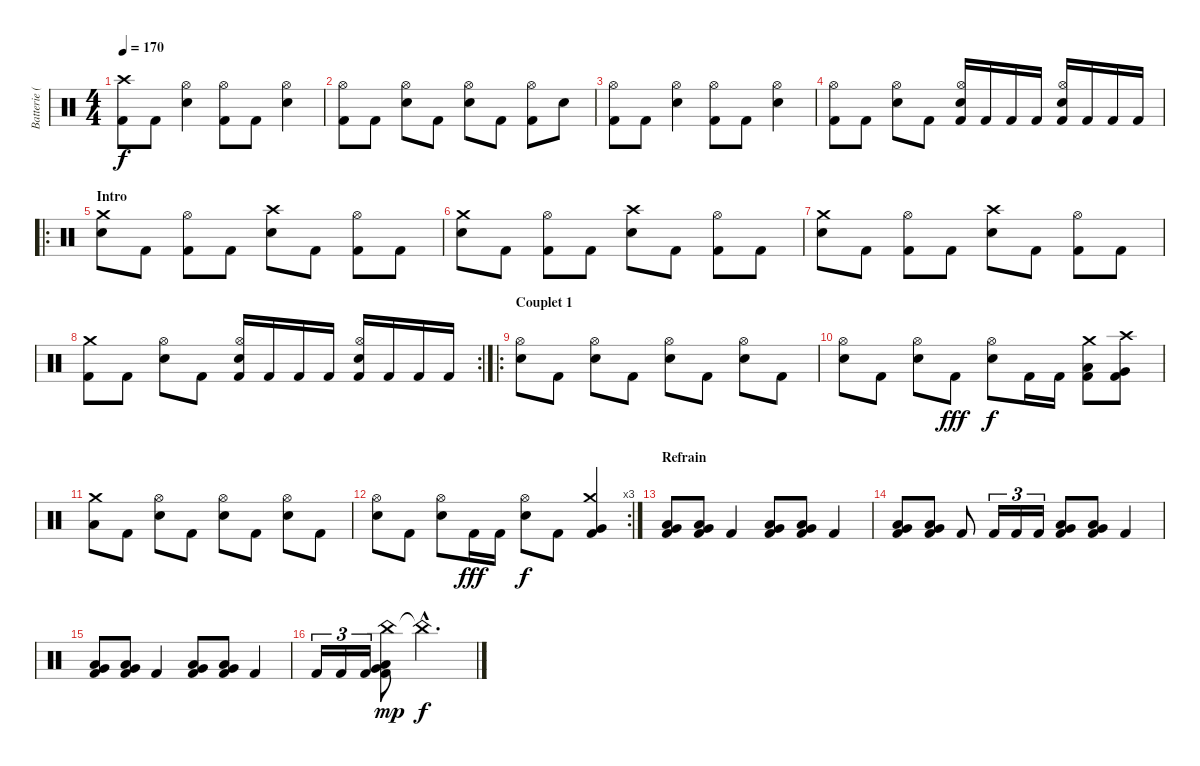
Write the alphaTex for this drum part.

\track ("Batterie (Racci \"Sketchy\" Shay)" "Batterie (") {instrument percussion}
\staff {score}
\articulation defaults
\ts (4 4)
\tempo 170
\clef neutral
\ks c
("Crash high (hit)" "Kick (hit) 2").8{dy f} "Kick (hit) 2".8 ("Hi-Hat (open)" "Electric Snare (hit)").4 ("Hi-Hat (open)" "Kick (hit) 2").8 "Kick (hit) 2".8 ("Hi-Hat (open)" "Electric Snare (hit)").4 |
("Hi-Hat (open)" "Kick (hit) 2").8 "Kick (hit) 2".8 ("Hi-Hat (open)" "Electric Snare (hit)").8 "Kick (hit) 2".8 ("Hi-Hat (open)" "Electric Snare (hit)").8 "Kick (hit) 2".8 ("Hi-Hat (open)" "Kick (hit) 2").8 "Electric Snare (hit)".8 |
("Hi-Hat (open)" "Kick (hit) 2").8 "Kick (hit) 2".8 ("Hi-Hat (open)" "Electric Snare (hit)").4 ("Hi-Hat (open)" "Kick (hit) 2").8 "Kick (hit) 2".8 ("Hi-Hat (open)" "Electric Snare (hit)").4 |
("Hi-Hat (open)" "Kick (hit) 2").8 "Kick (hit) 2".8 ("Hi-Hat (open)" "Electric Snare (hit)").8 "Kick (hit) 2".8 ("Hi-Hat (open)" "Electric Snare (hit)" "Kick (hit) 2").16 "Kick (hit) 2".16 "Kick (hit) 2".16 "Kick (hit) 2".16 ("Hi-Hat (open)" "Electric Snare (hit)" "Kick (hit) 2").16 "Kick (hit) 2".16 "Kick (hit) 2".16 "Kick (hit) 2".16 |
\ro
\section ("" "Intro")
("Crash medium (hit)" "Electric Snare (hit)").8 "Kick (hit) 2".8 ("Hi-Hat (open)" "Kick (hit) 2").8 "Kick (hit) 2".8 ("Crash high (hit)" "Electric Snare (hit)").8 "Kick (hit) 2".8 ("Hi-Hat (open)" "Kick (hit) 2").8 "Kick (hit) 2".8 |
("Crash medium (hit)" "Electric Snare (hit)").8 "Kick (hit) 2".8 ("Hi-Hat (open)" "Kick (hit) 2").8 "Kick (hit) 2".8 ("Crash high (hit)" "Electric Snare (hit)").8 "Kick (hit) 2".8 ("Hi-Hat (open)" "Kick (hit) 2").8 "Kick (hit) 2".8 |
("Crash medium (hit)" "Electric Snare (hit)").8 "Kick (hit) 2".8 ("Hi-Hat (open)" "Kick (hit) 2").8 "Kick (hit) 2".8 ("Crash high (hit)" "Electric Snare (hit)").8 "Kick (hit) 2".8 ("Hi-Hat (open)" "Kick (hit) 2").8 "Kick (hit) 2".8 |
\rc 2
("Crash medium (hit)" "Kick (hit) 2").8 "Kick (hit) 2".8 ("Hi-Hat (open)" "Electric Snare (hit)").8 "Kick (hit) 2".8 ("Hi-Hat (open)" "Electric Snare (hit)" "Kick (hit) 2").16 "Kick (hit) 2".16 "Kick (hit) 2".16 "Kick (hit) 2".16 ("Hi-Hat (open)" "Electric Snare (hit)" "Kick (hit) 2").16 "Kick (hit) 2".16 "Kick (hit) 2".16 "Kick (hit) 2".16 |
\ro
\section ("" "Couplet 1")
("Hi-Hat (open)" "Electric Snare (hit)").8 "Kick (hit) 2".8 ("Hi-Hat (open)" "Electric Snare (hit)").8 "Kick (hit) 2".8 ("Hi-Hat (open)" "Electric Snare (hit)").8 "Kick (hit) 2".8 ("Hi-Hat (open)" "Electric Snare (hit)").8 "Kick (hit) 2".8 |
("Hi-Hat (open)" "Electric Snare (hit)").8 "Kick (hit) 2".8 ("Hi-Hat (open)" "Electric Snare (hit)").8 "Kick (hit) 2".8{dy fff} ("Hi-Hat (open)" "Electric Snare (hit)").8{dy f} "Kick (hit) 2".16 "Kick (hit) 2".16 ("Crash medium (hit)" "Low Floor Tom (hit)" "Kick (hit) 2").8 ("Crash high (hit)" "Very Low Tom (hit)" "Kick (hit) 2").8 |
("Crash medium (hit)" "Low Floor Tom (hit)").8 "Kick (hit) 2".8 ("Hi-Hat (open)" "Electric Snare (hit)").8 "Kick (hit) 2".8 ("Hi-Hat (open)" "Electric Snare (hit)").8 "Kick (hit) 2".8 ("Hi-Hat (open)" "Electric Snare (hit)").8 "Kick (hit) 2".8 |
\rc 3
("Hi-Hat (open)" "Electric Snare (hit)").8 "Kick (hit) 2".8 ("Hi-Hat (open)" "Electric Snare (hit)").8 "Kick (hit) 2".16{dy fff} "Kick (hit) 2".16 ("Hi-Hat (open)" "Electric Snare (hit)").8{dy f} "Kick (hit) 2".8 ("Crash medium (hit)" "Very Low Tom (hit)" "Kick (hit) 2").4 |
\section ("" "Refrain")
("Very Low Tom (hit)" "Low Floor Tom (hit)" "Kick (hit) 2").8 ("Very Low Tom (hit)" "Low Floor Tom (hit)" "Kick (hit) 2").8 "Kick (hit) 2".4 ("Very Low Tom (hit)" "Low Floor Tom (hit)" "Kick (hit) 2").8 ("Very Low Tom (hit)" "Low Floor Tom (hit)" "Kick (hit) 2").8 "Kick (hit) 2".4 |
("Very Low Tom (hit)" "Low Floor Tom (hit)" "Kick (hit) 2").8 ("Very Low Tom (hit)" "Low Floor Tom (hit)" "Kick (hit) 2").8 "Kick (hit) 2".8 "Kick (hit) 2".16{tu (3 2)} "Kick (hit) 2".16{tu (3 2)} "Kick (hit) 2".16{tu (3 2)} ("Very Low Tom (hit)" "Low Floor Tom (hit)" "Kick (hit) 2").8 ("Very Low Tom (hit)" "Low Floor Tom (hit)" "Kick (hit) 2").8 "Kick (hit) 2".4 |
("Very Low Tom (hit)" "Low Floor Tom (hit)" "Kick (hit) 2").8 ("Very Low Tom (hit)" "Low Floor Tom (hit)" "Kick (hit) 2").8 "Kick (hit) 2".4 ("Very Low Tom (hit)" "Low Floor Tom (hit)" "Kick (hit) 2").8 ("Very Low Tom (hit)" "Low Floor Tom (hit)" "Kick (hit) 2").8 "Kick (hit) 2".4 |
"Kick (hit) 2".16{tu (3 2)} "Kick (hit) 2".16{tu (3 2)} "Kick (hit) 2".16{tu (3 2)} ("China (hit)" "Very Low Tom (hit)" "Low Floor Tom (hit)" "Kick (hit) 2").8{dy mp} "China (hit)"{hac t}.2{d dy f}
